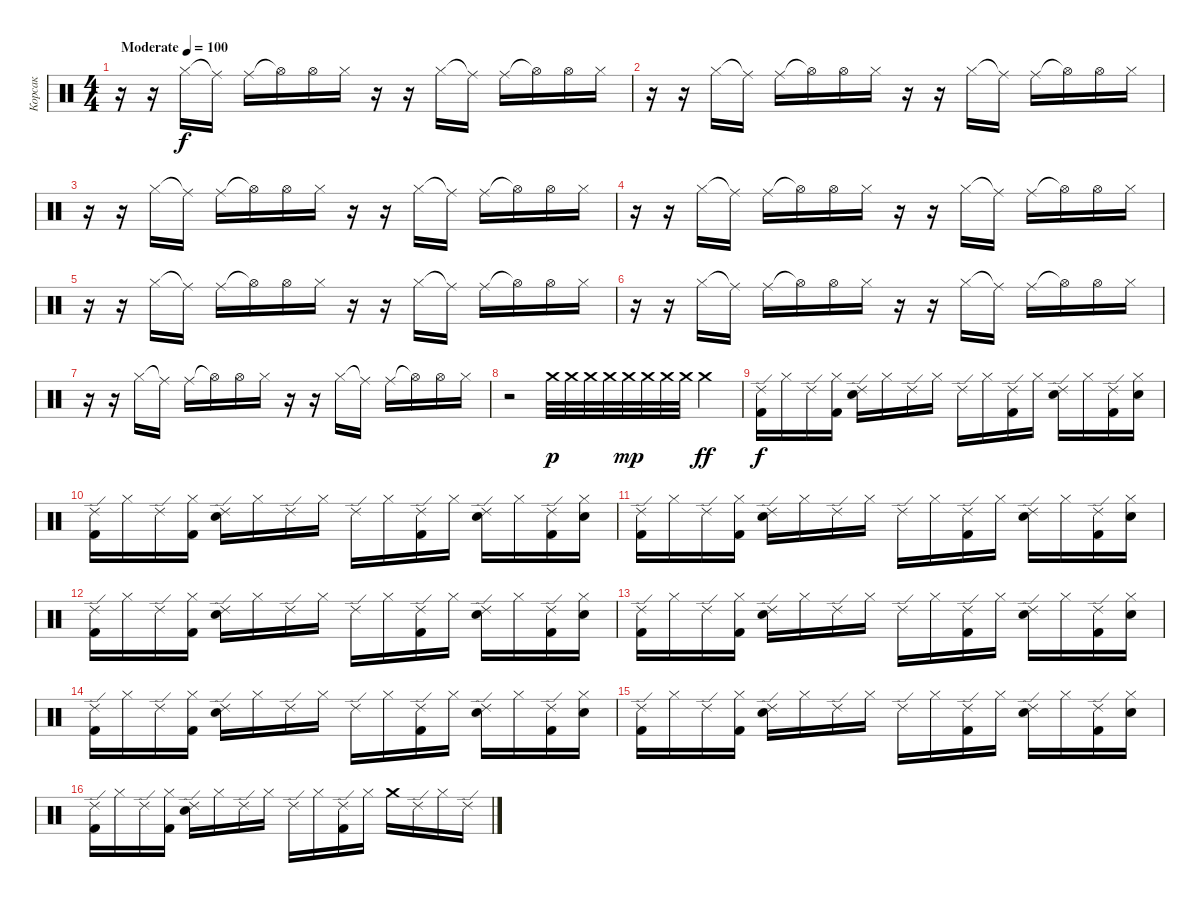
\track ("Корсак" "Корсак") {instrument percussion}
\staff {score}
\articulation defaults
\ts (4 4)
\tempo (100 "Moderate")
\clef neutral
\ks c
r.16{dy f} r.16 "Hi-Hat (closed)".16 "Ride (middle)"{t}.16 "Ride (middle)".16 "Hi-Hat (open)"{t}.16 "Hi-Hat (open)".16 "Hi-Hat (closed)".16 r.16 r.16 "Hi-Hat (closed)".16 "Ride (middle)"{t}.16 "Ride (middle)".16 "Hi-Hat (open)"{t}.16 "Hi-Hat (open)".16 "Hi-Hat (closed)".16 |
r.16 r.16 "Hi-Hat (closed)".16 "Ride (middle)"{t}.16 "Ride (middle)".16 "Hi-Hat (open)"{t}.16 "Hi-Hat (open)".16 "Hi-Hat (closed)".16 r.16 r.16 "Hi-Hat (closed)".16 "Ride (middle)"{t}.16 "Ride (middle)".16 "Hi-Hat (open)"{t}.16 "Hi-Hat (open)".16 "Hi-Hat (closed)".16 |
r.16 r.16 "Hi-Hat (closed)".16 "Ride (middle)"{t}.16 "Ride (middle)".16 "Hi-Hat (open)"{t}.16 "Hi-Hat (open)".16 "Hi-Hat (closed)".16 r.16 r.16 "Hi-Hat (closed)".16 "Ride (middle)"{t}.16 "Ride (middle)".16 "Hi-Hat (open)"{t}.16 "Hi-Hat (open)".16 "Hi-Hat (closed)".16 |
r.16 r.16 "Hi-Hat (closed)".16 "Ride (middle)"{t}.16 "Ride (middle)".16 "Hi-Hat (open)"{t}.16 "Hi-Hat (open)".16 "Hi-Hat (closed)".16 r.16 r.16 "Hi-Hat (closed)".16 "Ride (middle)"{t}.16 "Ride (middle)".16 "Hi-Hat (open)"{t}.16 "Hi-Hat (open)".16 "Hi-Hat (closed)".16 |
r.16 r.16 "Hi-Hat (closed)".16 "Ride (middle)"{t}.16 "Ride (middle)".16 "Hi-Hat (open)"{t}.16 "Hi-Hat (open)".16 "Hi-Hat (closed)".16 r.16 r.16 "Hi-Hat (closed)".16 "Ride (middle)"{t}.16 "Ride (middle)".16 "Hi-Hat (open)"{t}.16 "Hi-Hat (open)".16 "Hi-Hat (closed)".16 |
r.16 r.16 "Hi-Hat (closed)".16 "Ride (middle)"{t}.16 "Ride (middle)".16 "Hi-Hat (open)"{t}.16 "Hi-Hat (open)".16 "Hi-Hat (closed)".16 r.16 r.16 "Hi-Hat (closed)".16 "Ride (middle)"{t}.16 "Ride (middle)".16 "Hi-Hat (open)"{t}.16 "Hi-Hat (open)".16 "Hi-Hat (closed)".16 |
r.16 r.16 "Hi-Hat (closed)".16 "Ride (middle)"{t}.16 "Ride (middle)".16 "Hi-Hat (open)"{t}.16 "Hi-Hat (open)".16 "Hi-Hat (closed)".16 r.16 r.16 "Hi-Hat (closed)".16 "Ride (middle)"{t}.16 "Ride (middle)".16 "Hi-Hat (open)"{t}.16 "Hi-Hat (open)".16 "Hi-Hat (closed)".16 |
r.2 "Crash medium (hit)".32{dy p} "Crash medium (hit)".32 "Crash medium (hit)".32 "Crash medium (hit)".32 "Crash medium (hit)".32{dy mp} "Crash medium (hit)".32 "Crash medium (hit)".32 "Crash medium (hit)".32 "Crash medium (hit)".4{dy ff} |
("Ride (edge) 2" "Kick (hit) 2").16{dy f} "Hi-Hat (closed)".16 "Ride (edge) 2".16 ("Hi-Hat (closed)" "Kick (hit) 2").16 ("Ride (edge) 2" "Electric Snare (hit)").16 "Hi-Hat (closed)".16 "Ride (edge) 2".16 "Hi-Hat (closed)".16 "Ride (edge) 2".16 "Hi-Hat (closed)".16 ("Ride (edge) 2" "Kick (hit) 2").16 "Hi-Hat (closed)".16 ("Ride (edge) 2" "Electric Snare (hit)").16 "Hi-Hat (closed)".16 ("Ride (edge) 2" "Kick (hit) 2").16 ("Hi-Hat (closed)" "Electric Snare (hit)").16 |
("Ride (edge) 2" "Kick (hit) 2").16 "Hi-Hat (closed)".16 "Ride (edge) 2".16 ("Hi-Hat (closed)" "Kick (hit) 2").16 ("Ride (edge) 2" "Electric Snare (hit)").16 "Hi-Hat (closed)".16 "Ride (edge) 2".16 "Hi-Hat (closed)".16 "Ride (edge) 2".16 "Hi-Hat (closed)".16 ("Ride (edge) 2" "Kick (hit) 2").16 "Hi-Hat (closed)".16 ("Ride (edge) 2" "Electric Snare (hit)").16 "Hi-Hat (closed)".16 ("Ride (edge) 2" "Kick (hit) 2").16 ("Hi-Hat (closed)" "Electric Snare (hit)").16 |
("Ride (edge) 2" "Kick (hit) 2").16 "Hi-Hat (closed)".16 "Ride (edge) 2".16 ("Hi-Hat (closed)" "Kick (hit) 2").16 ("Ride (edge) 2" "Electric Snare (hit)").16 "Hi-Hat (closed)".16 "Ride (edge) 2".16 "Hi-Hat (closed)".16 "Ride (edge) 2".16 "Hi-Hat (closed)".16 ("Ride (edge) 2" "Kick (hit) 2").16 "Hi-Hat (closed)".16 ("Ride (edge) 2" "Electric Snare (hit)").16 "Hi-Hat (closed)".16 ("Ride (edge) 2" "Kick (hit) 2").16 ("Hi-Hat (closed)" "Electric Snare (hit)").16 |
("Ride (edge) 2" "Kick (hit) 2").16 "Hi-Hat (closed)".16 "Ride (edge) 2".16 ("Hi-Hat (closed)" "Kick (hit) 2").16 ("Ride (edge) 2" "Electric Snare (hit)").16 "Hi-Hat (closed)".16 "Ride (edge) 2".16 "Hi-Hat (closed)".16 "Ride (edge) 2".16 "Hi-Hat (closed)".16 ("Ride (edge) 2" "Kick (hit) 2").16 "Hi-Hat (closed)".16 ("Ride (edge) 2" "Electric Snare (hit)").16 "Hi-Hat (closed)".16 ("Ride (edge) 2" "Kick (hit) 2").16 ("Hi-Hat (closed)" "Electric Snare (hit)").16 |
("Ride (edge) 2" "Kick (hit) 2").16 "Hi-Hat (closed)".16 "Ride (edge) 2".16 ("Hi-Hat (closed)" "Kick (hit) 2").16 ("Ride (edge) 2" "Electric Snare (hit)").16 "Hi-Hat (closed)".16 "Ride (edge) 2".16 "Hi-Hat (closed)".16 "Ride (edge) 2".16 "Hi-Hat (closed)".16 ("Ride (edge) 2" "Kick (hit) 2").16 "Hi-Hat (closed)".16 ("Ride (edge) 2" "Electric Snare (hit)").16 "Hi-Hat (closed)".16 ("Ride (edge) 2" "Kick (hit) 2").16 ("Hi-Hat (closed)" "Electric Snare (hit)").16 |
("Ride (edge) 2" "Kick (hit) 2").16 "Hi-Hat (closed)".16 "Ride (edge) 2".16 ("Hi-Hat (closed)" "Kick (hit) 2").16 ("Ride (edge) 2" "Electric Snare (hit)").16 "Hi-Hat (closed)".16 "Ride (edge) 2".16 "Hi-Hat (closed)".16 "Ride (edge) 2".16 "Hi-Hat (closed)".16 ("Ride (edge) 2" "Kick (hit) 2").16 "Hi-Hat (closed)".16 ("Ride (edge) 2" "Electric Snare (hit)").16 "Hi-Hat (closed)".16 ("Ride (edge) 2" "Kick (hit) 2").16 ("Hi-Hat (closed)" "Electric Snare (hit)").16 |
("Ride (edge) 2" "Kick (hit) 2").16 "Hi-Hat (closed)".16 "Ride (edge) 2".16 ("Hi-Hat (closed)" "Kick (hit) 2").16 ("Ride (edge) 2" "Electric Snare (hit)").16 "Hi-Hat (closed)".16 "Ride (edge) 2".16 "Hi-Hat (closed)".16 "Ride (edge) 2".16 "Hi-Hat (closed)".16 ("Ride (edge) 2" "Kick (hit) 2").16 "Hi-Hat (closed)".16 ("Ride (edge) 2" "Electric Snare (hit)").16 "Hi-Hat (closed)".16 ("Ride (edge) 2" "Kick (hit) 2").16 ("Hi-Hat (closed)" "Electric Snare (hit)").16 |
("Ride (edge) 2" "Kick (hit) 2").16 "Hi-Hat (closed)".16 "Ride (edge) 2".16 ("Hi-Hat (closed)" "Kick (hit) 2").16 ("Ride (edge) 2" "Electric Snare (hit)").16 "Hi-Hat (closed)".16 "Ride (edge) 2".16 "Hi-Hat (closed)".16 "Ride (edge) 2".16 "Hi-Hat (closed)".16 ("Ride (edge) 2" "Kick (hit) 2").16 "Hi-Hat (closed)".16 "Crash medium (hit)".16 "Ride (edge) 2".16 "Hi-Hat (closed)".16 "Ride (edge) 2".16
